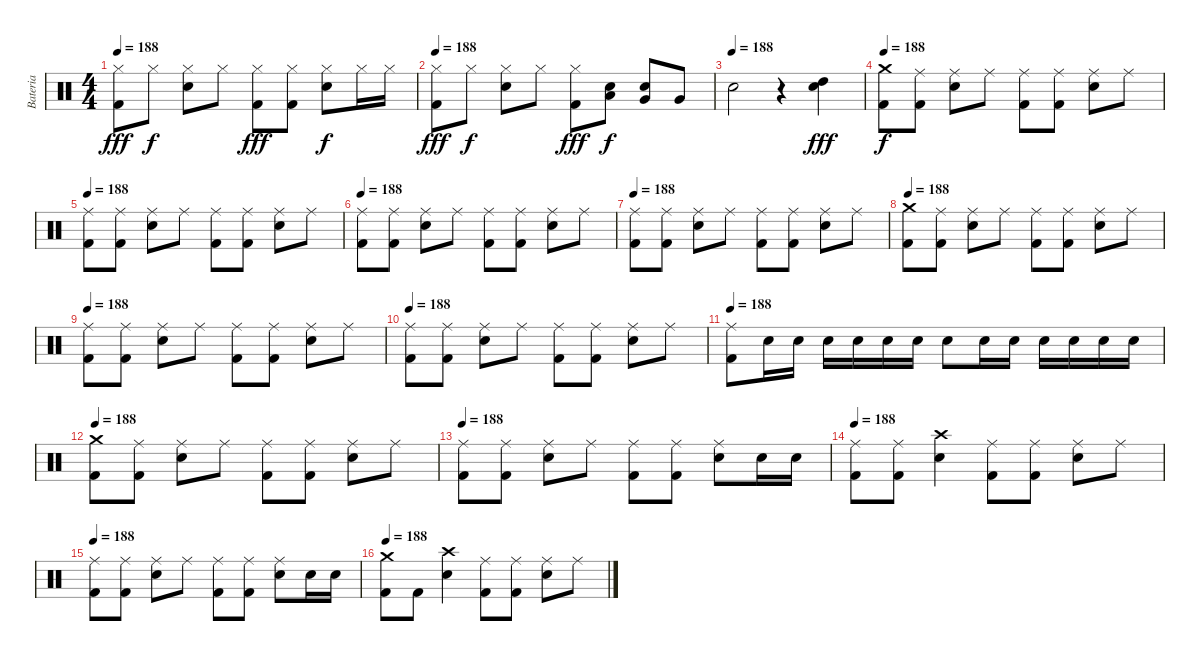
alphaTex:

\track ("Bateria" "Bateria") {instrument percussion}
\staff {score}
\articulation defaults
\ts (4 4)
\tempo 188
\clef neutral
\ks c
("Hi-Hat (closed)" "Kick (hit) 2").8{dy fff} "Hi-Hat (closed)".8{dy f} ("Hi-Hat (closed)" "Electric Snare (hit)").8 "Hi-Hat (closed)".8 ("Hi-Hat (closed)" "Kick (hit) 2").8{dy fff} ("Hi-Hat (closed)" "Kick (hit) 2").8 ("Hi-Hat (closed)" "Electric Snare (hit)").8{dy f} "Hi-Hat (closed)".16 "Hi-Hat (closed)".16 |
\tempo 188
("Hi-Hat (closed)" "Kick (hit) 2").8{dy fff} "Hi-Hat (closed)".8{dy f} ("Hi-Hat (closed)" "Electric Snare (hit)").8 "Hi-Hat (closed)".8 ("Hi-Hat (closed)" "Kick (hit) 2").8{dy fff} ("Low Tom (hit)" "Electric Snare (hit)").8{dy f} ("Very Low Tom (hit)" "Electric Snare (hit)").8 "Very Low Tom (hit)".8 |
\tempo (188)
"Electric Snare (hit)".2 r.4 ("High Tom (hit)" "Electric Snare (hit)").4{dy fff} |
\tempo 188
("Crash medium (hit)" "Kick (hit) 2").8{dy f} ("Ride (middle)" "Kick (hit) 2").8 ("Ride (middle)" "Electric Snare (hit)").8 "Ride (middle)".8 ("Ride (middle)" "Kick (hit) 2").8 ("Ride (middle)" "Kick (hit) 2").8 ("Ride (middle)" "Electric Snare (hit)").8 "Ride (middle)".8 |
\tempo 188
("Ride (middle)" "Kick (hit) 2").8 ("Ride (middle)" "Kick (hit) 2").8 ("Ride (middle)" "Electric Snare (hit)").8 "Ride (middle)".8 ("Ride (middle)" "Kick (hit) 2").8 ("Ride (middle)" "Kick (hit) 2").8 ("Ride (middle)" "Electric Snare (hit)").8 "Ride (middle)".8 |
\tempo 188
("Ride (middle)" "Kick (hit) 2").8 ("Ride (middle)" "Kick (hit) 2").8 ("Ride (middle)" "Electric Snare (hit)").8 "Ride (middle)".8 ("Ride (middle)" "Kick (hit) 2").8 ("Ride (middle)" "Kick (hit) 2").8 ("Ride (middle)" "Electric Snare (hit)").8 "Ride (middle)".8 |
\tempo 188
("Ride (middle)" "Kick (hit) 2").8 ("Ride (middle)" "Kick (hit) 2").8 ("Ride (middle)" "Electric Snare (hit)").8 "Ride (middle)".8 ("Ride (middle)" "Kick (hit) 2").8 ("Ride (middle)" "Kick (hit) 2").8 ("Ride (middle)" "Electric Snare (hit)").8 "Ride (middle)".8 |
\tempo 188
("Crash medium (hit)" "Kick (hit) 2").8 ("Ride (middle)" "Kick (hit) 2").8 ("Ride (middle)" "Electric Snare (hit)").8 "Ride (middle)".8 ("Ride (middle)" "Kick (hit) 2").8 ("Ride (middle)" "Kick (hit) 2").8 ("Ride (middle)" "Electric Snare (hit)").8 "Ride (middle)".8 |
\tempo 188
("Ride (middle)" "Kick (hit) 2").8 ("Ride (middle)" "Kick (hit) 2").8 ("Ride (middle)" "Electric Snare (hit)").8 "Ride (middle)".8 ("Ride (middle)" "Kick (hit) 2").8 ("Ride (middle)" "Kick (hit) 2").8 ("Ride (middle)" "Electric Snare (hit)").8 "Ride (middle)".8 |
\tempo 188
("Ride (middle)" "Kick (hit) 2").8 ("Ride (middle)" "Kick (hit) 2").8 ("Ride (middle)" "Electric Snare (hit)").8 "Ride (middle)".8 ("Ride (middle)" "Kick (hit) 2").8 ("Ride (middle)" "Kick (hit) 2").8 ("Ride (middle)" "Electric Snare (hit)").8 "Ride (middle)".8 |
\tempo 188
("Ride (middle)" "Kick (hit) 2").8 "Electric Snare (hit)".16 "Electric Snare (hit)".16 "Electric Snare (hit)".16 "Electric Snare (hit)".16 "Electric Snare (hit)".16 "Electric Snare (hit)".16 "Electric Snare (hit)".8 "Electric Snare (hit)".16 "Electric Snare (hit)".16 "Electric Snare (hit)".16 "Electric Snare (hit)".16 "Electric Snare (hit)".16 "Electric Snare (hit)".16 |
\tempo 188
("Crash medium (hit)" "Kick (hit) 2").8 ("Ride (middle)" "Kick (hit) 2").8 ("Ride (middle)" "Electric Snare (hit)").8 "Ride (middle)".8 ("Ride (middle)" "Kick (hit) 2").8 ("Ride (middle)" "Kick (hit) 2").8 ("Ride (middle)" "Electric Snare (hit)").8 "Ride (middle)".8 |
\tempo 188
("Ride (middle)" "Kick (hit) 2").8 ("Ride (middle)" "Kick (hit) 2").8 ("Ride (middle)" "Electric Snare (hit)").8 "Ride (middle)".8 ("Ride (middle)" "Kick (hit) 2").8 ("Ride (middle)" "Kick (hit) 2").8 ("Ride (middle)" "Electric Snare (hit)").8 "Electric Snare (hit)".16 "Electric Snare (hit)".16 |
\tempo 188
("Ride (middle)" "Kick (hit) 2").8 ("Ride (middle)" "Kick (hit) 2").8 ("Crash high (hit)" "Electric Snare (hit)").4 ("Ride (middle)" "Kick (hit) 2").8 ("Ride (middle)" "Kick (hit) 2").8 ("Ride (middle)" "Electric Snare (hit)").8 "Ride (middle)".8 |
\tempo 188
("Ride (middle)" "Kick (hit) 2").8 ("Ride (middle)" "Kick (hit) 2").8 ("Ride (middle)" "Electric Snare (hit)").8 "Ride (middle)".8 ("Ride (middle)" "Kick (hit) 2").8 ("Ride (middle)" "Kick (hit) 2").8 ("Ride (middle)" "Electric Snare (hit)").8 "Electric Snare (hit)".16 "Electric Snare (hit)".16 |
\tempo 188
("Crash medium (hit)" "Kick (hit) 2").8 "Kick (hit) 2".8 ("Crash high (hit)" "Electric Snare (hit)").4 ("Ride (middle)" "Kick (hit) 2").8 ("Ride (middle)" "Kick (hit) 2").8 ("Ride (middle)" "Electric Snare (hit)").8 "Ride (middle)".8
